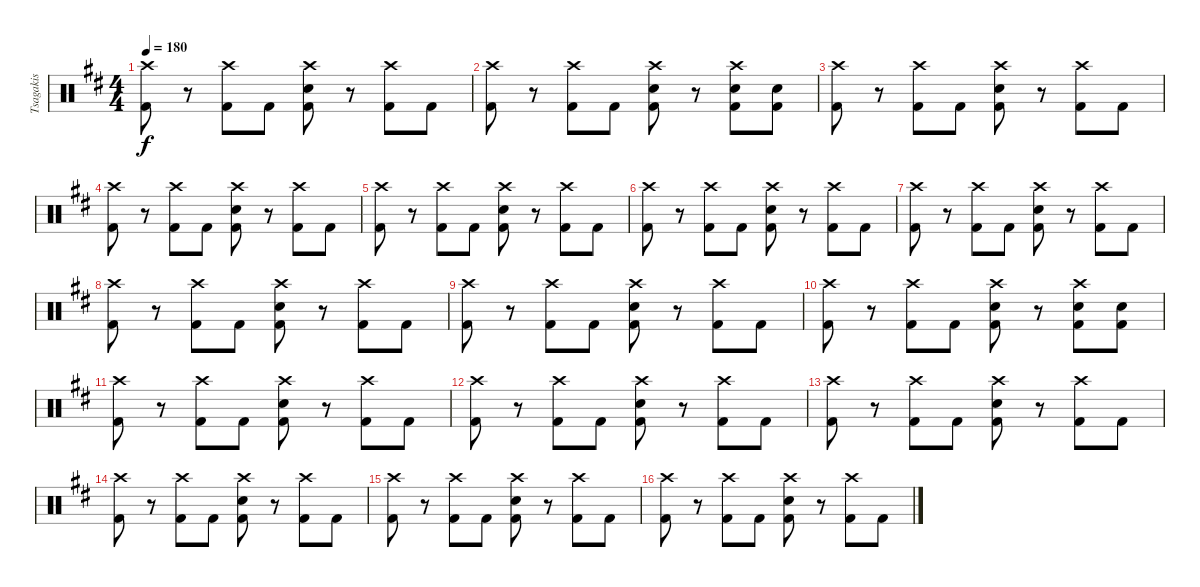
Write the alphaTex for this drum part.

\track ("Tsagakis" "Tsagakis") {instrument percussion}
\staff {score}
\articulation defaults
\ts (4 4)
\tempo 180
\clef neutral
\ks d
("Crash high (hit)" "Kick (hit) 2").8{dy f} r.8 ("Crash high (hit)" "Kick (hit) 2").8 "Kick (hit) 2".8 ("Crash high (hit)" "Electric Snare (hit)" "Kick (hit) 2").8 r.8 ("Crash high (hit)" "Kick (hit) 2").8 "Kick (hit) 2".8 |
("Crash high (hit)" "Kick (hit) 2").8 r.8 ("Crash high (hit)" "Kick (hit) 2").8 "Kick (hit) 2".8 ("Crash high (hit)" "Electric Snare (hit)" "Kick (hit) 2").8 r.8 ("Crash high (hit)" "Electric Snare (hit)" "Kick (hit) 2").8 ("Electric Snare (hit)" "Kick (hit) 2").8 |
("Crash high (hit)" "Kick (hit) 2").8 r.8 ("Crash high (hit)" "Kick (hit) 2").8 "Kick (hit) 2".8 ("Crash high (hit)" "Electric Snare (hit)" "Kick (hit) 2").8 r.8 ("Crash high (hit)" "Kick (hit) 2").8 "Kick (hit) 2".8 |
("Crash high (hit)" "Kick (hit) 2").8 r.8 ("Crash high (hit)" "Kick (hit) 2").8 "Kick (hit) 2".8 ("Crash high (hit)" "Electric Snare (hit)" "Kick (hit) 2").8 r.8 ("Crash high (hit)" "Kick (hit) 2").8 "Kick (hit) 2".8 |
("Crash high (hit)" "Kick (hit) 2").8 r.8 ("Crash high (hit)" "Kick (hit) 2").8 "Kick (hit) 2".8 ("Crash high (hit)" "Electric Snare (hit)" "Kick (hit) 2").8 r.8 ("Crash high (hit)" "Kick (hit) 2").8 "Kick (hit) 2".8 |
("Crash high (hit)" "Kick (hit) 2").8 r.8 ("Crash high (hit)" "Kick (hit) 2").8 "Kick (hit) 2".8 ("Crash high (hit)" "Electric Snare (hit)" "Kick (hit) 2").8 r.8 ("Crash high (hit)" "Kick (hit) 2").8 "Kick (hit) 2".8 |
("Crash high (hit)" "Kick (hit) 2").8 r.8 ("Crash high (hit)" "Kick (hit) 2").8 "Kick (hit) 2".8 ("Crash high (hit)" "Electric Snare (hit)" "Kick (hit) 2").8 r.8 ("Crash high (hit)" "Kick (hit) 2").8 "Kick (hit) 2".8 |
("Crash high (hit)" "Kick (hit) 2").8 r.8 ("Crash high (hit)" "Kick (hit) 2").8 "Kick (hit) 2".8 ("Crash high (hit)" "Electric Snare (hit)" "Kick (hit) 2").8 r.8 ("Crash high (hit)" "Kick (hit) 2").8 "Kick (hit) 2".8 |
("Crash high (hit)" "Kick (hit) 2").8 r.8 ("Crash high (hit)" "Kick (hit) 2").8 "Kick (hit) 2".8 ("Crash high (hit)" "Electric Snare (hit)" "Kick (hit) 2").8 r.8 ("Crash high (hit)" "Kick (hit) 2").8 "Kick (hit) 2".8 |
("Crash high (hit)" "Kick (hit) 2").8 r.8 ("Crash high (hit)" "Kick (hit) 2").8 "Kick (hit) 2".8 ("Crash high (hit)" "Electric Snare (hit)" "Kick (hit) 2").8 r.8 ("Crash high (hit)" "Electric Snare (hit)" "Kick (hit) 2").8 ("Electric Snare (hit)" "Kick (hit) 2").8 |
("Crash high (hit)" "Kick (hit) 2").8 r.8 ("Crash high (hit)" "Kick (hit) 2").8 "Kick (hit) 2".8 ("Crash high (hit)" "Electric Snare (hit)" "Kick (hit) 2").8 r.8 ("Crash high (hit)" "Kick (hit) 2").8 "Kick (hit) 2".8 |
("Crash high (hit)" "Kick (hit) 2").8 r.8 ("Crash high (hit)" "Kick (hit) 2").8 "Kick (hit) 2".8 ("Crash high (hit)" "Electric Snare (hit)" "Kick (hit) 2").8 r.8 ("Crash high (hit)" "Kick (hit) 2").8 "Kick (hit) 2".8 |
("Crash high (hit)" "Kick (hit) 2").8 r.8 ("Crash high (hit)" "Kick (hit) 2").8 "Kick (hit) 2".8 ("Crash high (hit)" "Electric Snare (hit)" "Kick (hit) 2").8 r.8 ("Crash high (hit)" "Kick (hit) 2").8 "Kick (hit) 2".8 |
("Crash high (hit)" "Kick (hit) 2").8 r.8 ("Crash high (hit)" "Kick (hit) 2").8 "Kick (hit) 2".8 ("Crash high (hit)" "Electric Snare (hit)" "Kick (hit) 2").8 r.8 ("Crash high (hit)" "Kick (hit) 2").8 "Kick (hit) 2".8 |
("Crash high (hit)" "Kick (hit) 2").8 r.8 ("Crash high (hit)" "Kick (hit) 2").8 "Kick (hit) 2".8 ("Crash high (hit)" "Electric Snare (hit)" "Kick (hit) 2").8 r.8 ("Crash high (hit)" "Kick (hit) 2").8 "Kick (hit) 2".8 |
("Crash high (hit)" "Kick (hit) 2").8 r.8 ("Crash high (hit)" "Kick (hit) 2").8 "Kick (hit) 2".8 ("Crash high (hit)" "Electric Snare (hit)" "Kick (hit) 2").8 r.8 ("Crash high (hit)" "Kick (hit) 2").8 "Kick (hit) 2".8
